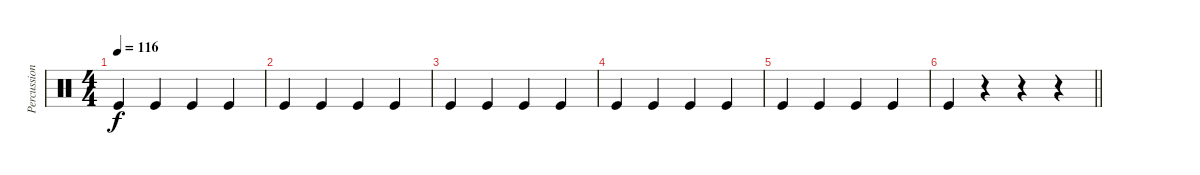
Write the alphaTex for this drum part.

\track ("Percussion" "Percussion") {instrument percussion}
\staff {score}
\articulation defaults
\ts (4 4)
\tempo 116
\clef neutral
\ks c "Kick (hit)".4{dy f} "Kick (hit)".4 "Kick (hit)".4 "Kick (hit)".4
|
"Kick (hit)".4 "Kick (hit)".4 "Kick (hit)".4 "Kick (hit)".4 |
"Kick (hit)".4 "Kick (hit)".4 "Kick (hit)".4 "Kick (hit)".4 |
"Kick (hit)".4 "Kick (hit)".4 "Kick (hit)".4 "Kick (hit)".4 |
"Kick (hit)".4 "Kick (hit)".4 "Kick (hit)".4 "Kick (hit)".4 |
\barLineRight lightlight "Kick (hit)".4
r.4 r.4 r.4
